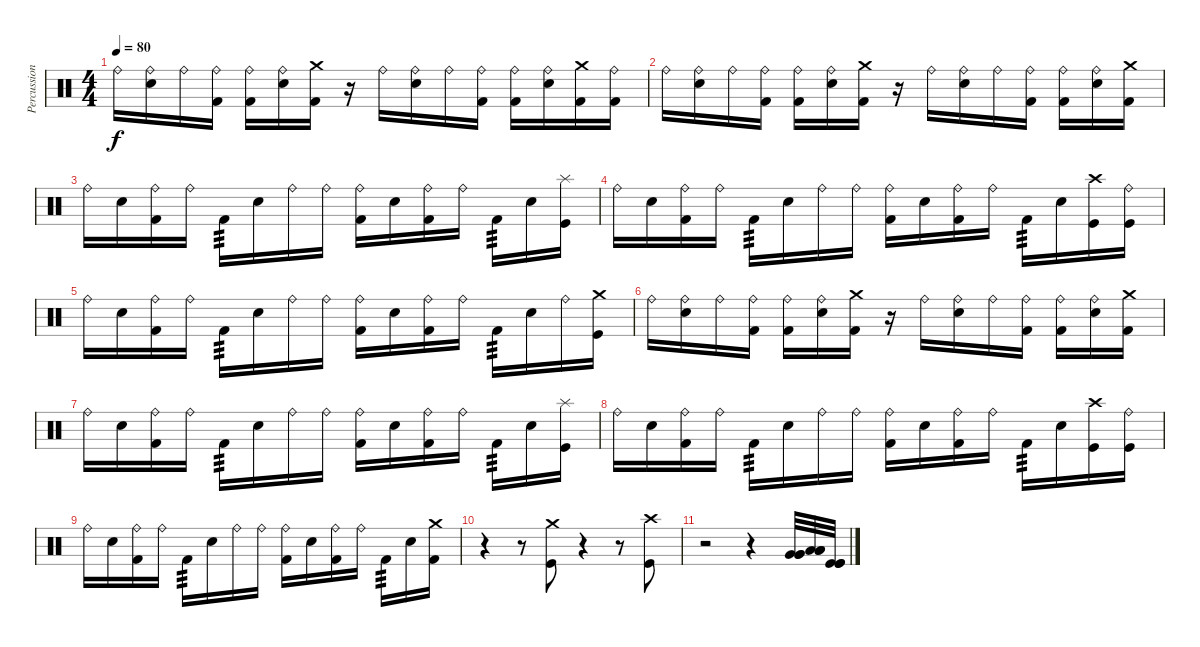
\track ("Percussion" "Percussion") {instrument percussion}
\staff {score}
\articulation defaults
\ts (4 4)
\tempo 80
\clef neutral
\ks c "Ride (bell)".16{dy f}
("Electric Snare (hit)" "Ride (bell)").16 "Ride (bell)".16 ("Kick (hit) 2" "Ride (bell)").16 ("Kick (hit) 2" "Ride (bell)").16 ("Electric Snare (hit)" "Ride (bell)").16 ("Kick (hit) 2" "Crash medium (hit)").16 r.16 "Ride (bell)".16 ("Electric Snare (hit)" "Ride (bell)").16 "Ride (bell)".16 ("Kick (hit) 2" "Ride (bell)").16 ("Kick (hit) 2" "Ride (bell)").16 ("Electric Snare (hit)" "Ride (bell)").16 ("Kick (hit) 2" "Crash medium (hit)").16 ("Kick (hit) 2" "Ride (bell)").16 |
"Ride (bell)".16 ("Electric Snare (hit)" "Ride (bell)").16 "Ride (bell)".16 ("Kick (hit) 2" "Ride (bell)").16 ("Kick (hit) 2" "Ride (bell)").16 ("Electric Snare (hit)" "Ride (bell)").16 ("Kick (hit) 2" "Crash medium (hit)").16 r.16 "Ride (bell)".16 ("Electric Snare (hit)" "Ride (bell)").16 "Ride (bell)".16 ("Kick (hit) 2" "Ride (bell)").16 ("Kick (hit) 2" "Ride (bell)").16 ("Electric Snare (hit)" "Ride (bell)").16 ("Kick (hit) 2" "Crash medium (hit)").16 |
"Ride (bell)".16 "Electric Snare (hit)".16 ("Ride (bell)" "Kick (hit) 2").16 "Ride (bell)".16 "Kick (hit) 2".16{tp 3} "Electric Snare (hit)".16 "Ride (bell)".16 "Ride (bell)".16 ("Ride (bell)" "Kick (hit) 2").16 "Electric Snare (hit)".16 ("Ride (bell)" "Kick (hit) 2").16 "Ride (bell)".16 "Kick (hit) 2".16{tp 3} "Electric Snare (hit)".16 ("Splash (hit)" "Kick (hit)").16 |
"Ride (bell)".16 "Electric Snare (hit)".16 ("Ride (bell)" "Kick (hit) 2").16 "Ride (bell)".16 "Kick (hit) 2".16{tp 3} "Electric Snare (hit)".16 "Ride (bell)".16 "Ride (bell)".16 ("Ride (bell)" "Kick (hit) 2").16 "Electric Snare (hit)".16 ("Ride (bell)" "Kick (hit) 2").16 "Ride (bell)".16 "Kick (hit) 2".16{tp 3} "Electric Snare (hit)".16 ("Crash high (hit)" "Kick (hit)").16 ("Ride (bell)" "Kick (hit)").16 |
"Ride (bell)".16 "Electric Snare (hit)".16 ("Ride (bell)" "Kick (hit) 2").16 "Ride (bell)".16 "Kick (hit) 2".16{tp 3} "Electric Snare (hit)".16 "Ride (bell)".16 "Ride (bell)".16 ("Ride (bell)" "Kick (hit) 2").16 "Electric Snare (hit)".16 ("Ride (bell)" "Kick (hit) 2").16 "Ride (bell)".16 "Kick (hit) 2".16{tp 3} "Electric Snare (hit)".16 "Ride (bell)".16 ("Crash medium (hit)" "Kick (hit)").16 |
"Ride (bell)".16 ("Electric Snare (hit)" "Ride (bell)").16 "Ride (bell)".16 ("Kick (hit) 2" "Ride (bell)").16 ("Kick (hit) 2" "Ride (bell)").16 ("Electric Snare (hit)" "Ride (bell)").16 ("Kick (hit) 2" "Crash medium (hit)").16 r.16 "Ride (bell)".16 ("Electric Snare (hit)" "Ride (bell)").16 "Ride (bell)".16 ("Kick (hit) 2" "Ride (bell)").16 ("Kick (hit) 2" "Ride (bell)").16 ("Electric Snare (hit)" "Ride (bell)").16 ("Kick (hit) 2" "Crash medium (hit)").16 |
"Ride (bell)".16 "Electric Snare (hit)".16 ("Ride (bell)" "Kick (hit) 2").16 "Ride (bell)".16 "Kick (hit) 2".16{tp 3} "Electric Snare (hit)".16 "Ride (bell)".16 "Ride (bell)".16 ("Ride (bell)" "Kick (hit) 2").16 "Electric Snare (hit)".16 ("Ride (bell)" "Kick (hit) 2").16 "Ride (bell)".16 "Kick (hit) 2".16{tp 3} "Electric Snare (hit)".16 ("Splash (hit)" "Kick (hit)").16 |
"Ride (bell)".16 "Electric Snare (hit)".16 ("Ride (bell)" "Kick (hit) 2").16 "Ride (bell)".16 "Kick (hit) 2".16{tp 3} "Electric Snare (hit)".16 "Ride (bell)".16 "Ride (bell)".16 ("Ride (bell)" "Kick (hit) 2").16 "Electric Snare (hit)".16 ("Ride (bell)" "Kick (hit) 2").16 "Ride (bell)".16 "Kick (hit) 2".16{tp 3} "Electric Snare (hit)".16 ("Crash high (hit)" "Kick (hit)").16 ("Ride (bell)" "Kick (hit)").16 |
"Ride (bell)".16 "Electric Snare (hit)".16 ("Ride (bell)" "Kick (hit) 2").16 "Ride (bell)".16 "Kick (hit) 2".16{tp 3} "Electric Snare (hit)".16 "Ride (bell)".16 "Ride (bell)".16 ("Ride (bell)" "Kick (hit) 2").16 "Electric Snare (hit)".16 ("Ride (bell)" "Kick (hit) 2").16 "Ride (bell)".16 "Kick (hit) 2".16{tp 3} "Electric Snare (hit)".16 ("Crash medium (hit)" "Kick (hit) 2").16 |
r.4 r.8 ("Crash medium (hit)" "Kick (hit)").8 r.4 r.8 ("Crash high (hit)" "Kick (hit)").8 |
r.2 r.4 ("Very Low Tom (hit)" "Very Low Tom (hit)" "Very Low Tom (hit)").32 ("Low Floor Tom (hit)" "Low Floor Tom (hit)" "Low Floor Tom (hit)").32 ("Kick (hit)" "Kick (hit)" "Kick (hit)").32
